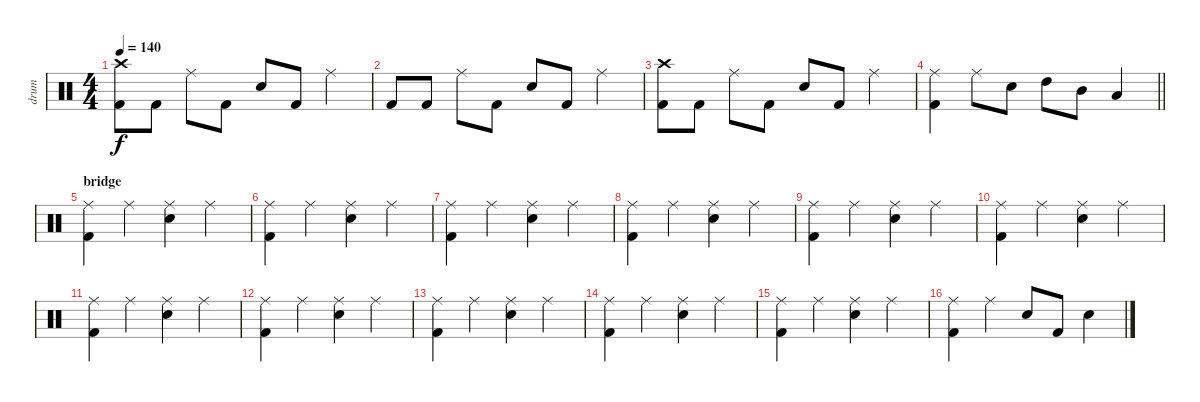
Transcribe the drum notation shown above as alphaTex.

\track ("drum" "drum") {instrument percussion}
\staff {score}
\articulation defaults
\ts (4 4)
\tempo 140
\clef neutral
\ks c
("Crash high (hit)" "Kick (hit) 2").8{dy f} "Kick (hit) 2".8 "Ride (middle)".8 "Kick (hit) 2".8 "Electric Snare (hit)".8 "Kick (hit) 2".8 "Ride (middle)".4 |
"Kick (hit) 2".8 "Kick (hit) 2".8 "Ride (middle)".8 "Kick (hit) 2".8 "Electric Snare (hit)".8 "Kick (hit) 2".8 "Ride (middle)".4 |
("Crash high (hit)" "Kick (hit) 2").8 "Kick (hit) 2".8 "Ride (middle)".8 "Kick (hit) 2".8 "Electric Snare (hit)".8 "Kick (hit) 2".8 "Ride (middle)".4 |
\barLineRight lightlight
("Ride (middle)" "Kick (hit) 2").4 "Ride (middle)".8 "Electric Snare (hit)".8 "High Tom (hit)".8 "Mid Tom (hit)".8 "Low Tom (hit)".4 |
\section ("" "bridge")
("Ride (middle)" "Kick (hit) 2").4 "Ride (middle)".4 ("Ride (middle)" "Electric Snare (hit)").4 "Ride (middle)".4 |
("Ride (middle)" "Kick (hit) 2").4 "Ride (middle)".4 ("Ride (middle)" "Electric Snare (hit)").4 "Ride (middle)".4 |
("Ride (middle)" "Kick (hit) 2").4 "Ride (middle)".4 ("Ride (middle)" "Electric Snare (hit)").4 "Ride (middle)".4 |
("Ride (middle)" "Kick (hit) 2").4 "Ride (middle)".4 ("Ride (middle)" "Electric Snare (hit)").4 "Ride (middle)".4 |
("Ride (middle)" "Kick (hit) 2").4 "Ride (middle)".4 ("Ride (middle)" "Electric Snare (hit)").4 "Ride (middle)".4 |
("Ride (middle)" "Kick (hit) 2").4 "Ride (middle)".4 ("Ride (middle)" "Electric Snare (hit)").4 "Ride (middle)".4 |
("Ride (middle)" "Kick (hit) 2").4 "Ride (middle)".4 ("Ride (middle)" "Electric Snare (hit)").4 "Ride (middle)".4 |
("Ride (middle)" "Kick (hit) 2").4 "Ride (middle)".4 ("Ride (middle)" "Electric Snare (hit)").4 "Ride (middle)".4 |
("Ride (middle)" "Kick (hit) 2").4 "Ride (middle)".4 ("Ride (middle)" "Electric Snare (hit)").4 "Ride (middle)".4 |
("Ride (middle)" "Kick (hit) 2").4 "Ride (middle)".4 ("Ride (middle)" "Electric Snare (hit)").4 "Ride (middle)".4 |
("Ride (middle)" "Kick (hit) 2").4 "Ride (middle)".4 ("Ride (middle)" "Electric Snare (hit)").4 "Ride (middle)".4 |
("Ride (middle)" "Kick (hit) 2").4 "Ride (middle)".4 "Electric Snare (hit)".8 "Kick (hit) 2".8 "Electric Snare (hit)".4
